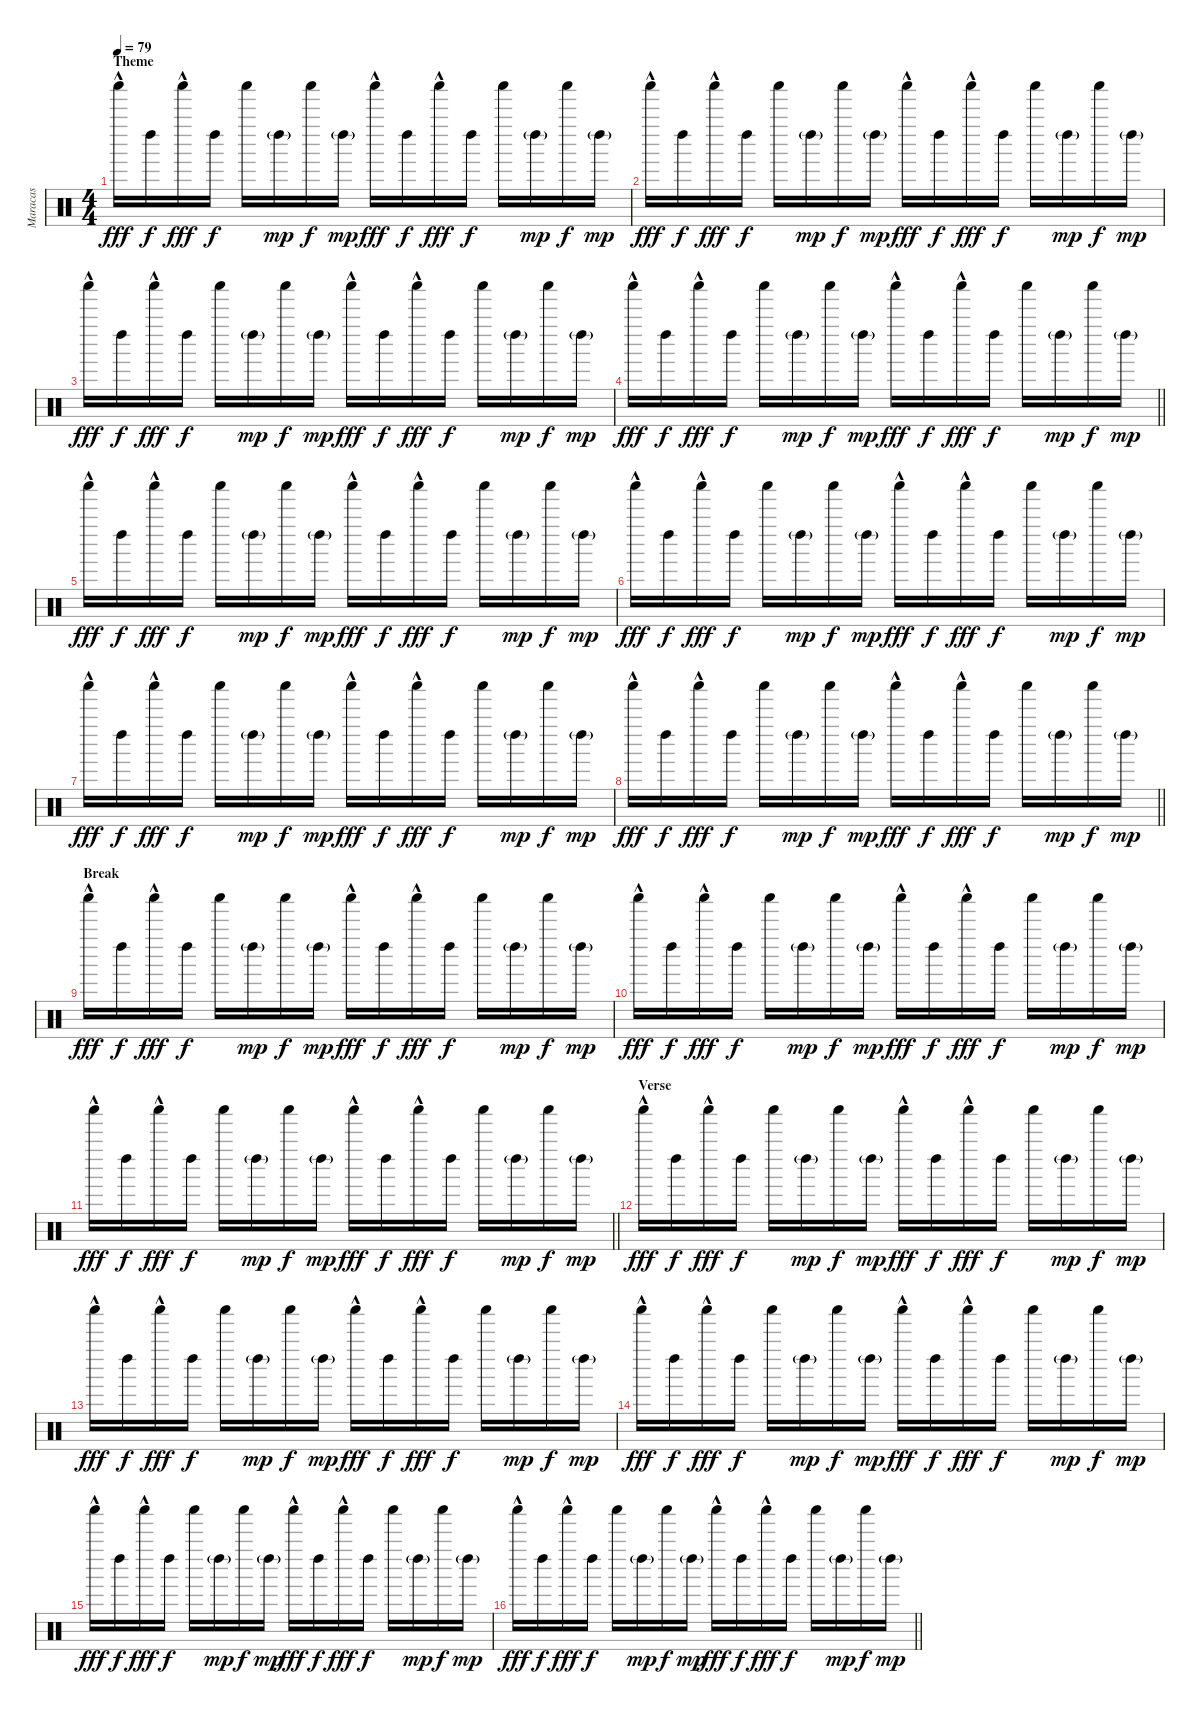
\track ("Maracas" "Maracas") {instrument percussion}
\staff {score}
\articulation defaults
\ts (4 4)
\section ("" "Theme")
\tempo 79
\clef neutral
\ks c "Shaker (hit)"{hac}.16{dy fff} "Left Maraca (hit)".16{dy f} "Shaker (hit)"{hac}.16{dy fff} "Left Maraca (hit)".16{dy f} "Shaker (hit)".16 "Left Maraca (hit)"{g}.16{dy mp} "Shaker (hit)".16{dy f} "Left Maraca (hit)"{g}.16{dy mp} "Shaker (hit)"{hac}.16{dy fff} "Left Maraca (hit)".16{dy f} "Shaker (hit)"{hac}.16{dy fff} "Left Maraca (hit)".16{dy f} "Shaker (hit)".16 "Left Maraca (hit)"{g}.16{dy mp} "Shaker (hit)".16{dy f} "Left Maraca (hit)"{g}.16{dy mp}
|
"Shaker (hit)"{hac}.16{dy fff} "Left Maraca (hit)".16{dy f} "Shaker (hit)"{hac}.16{dy fff} "Left Maraca (hit)".16{dy f} "Shaker (hit)".16 "Left Maraca (hit)"{g}.16{dy mp} "Shaker (hit)".16{dy f} "Left Maraca (hit)"{g}.16{dy mp} "Shaker (hit)"{hac}.16{dy fff} "Left Maraca (hit)".16{dy f} "Shaker (hit)"{hac}.16{dy fff} "Left Maraca (hit)".16{dy f} "Shaker (hit)".16 "Left Maraca (hit)"{g}.16{dy mp} "Shaker (hit)".16{dy f} "Left Maraca (hit)"{g}.16{dy mp} |
"Shaker (hit)"{hac}.16{dy fff} "Left Maraca (hit)".16{dy f} "Shaker (hit)"{hac}.16{dy fff} "Left Maraca (hit)".16{dy f} "Shaker (hit)".16 "Left Maraca (hit)"{g}.16{dy mp} "Shaker (hit)".16{dy f} "Left Maraca (hit)"{g}.16{dy mp} "Shaker (hit)"{hac}.16{dy fff} "Left Maraca (hit)".16{dy f} "Shaker (hit)"{hac}.16{dy fff} "Left Maraca (hit)".16{dy f} "Shaker (hit)".16 "Left Maraca (hit)"{g}.16{dy mp} "Shaker (hit)".16{dy f} "Left Maraca (hit)"{g}.16{dy mp} |
\barLineRight lightlight "Shaker (hit)"{hac}.16{dy fff} "Left Maraca (hit)".16{dy f} "Shaker (hit)"{hac}.16{dy fff} "Left Maraca (hit)".16{dy f} "Shaker (hit)".16 "Left Maraca (hit)"{g}.16{dy mp} "Shaker (hit)".16{dy f} "Left Maraca (hit)"{g}.16{dy mp} "Shaker (hit)"{hac}.16{dy fff} "Left Maraca (hit)".16{dy f} "Shaker (hit)"{hac}.16{dy fff} "Left Maraca (hit)".16{dy f} "Shaker (hit)".16 "Left Maraca (hit)"{g}.16{dy mp} "Shaker (hit)".16{dy f} "Left Maraca (hit)"{g}.16{dy mp}
|
"Shaker (hit)"{hac}.16{dy fff} "Left Maraca (hit)".16{dy f} "Shaker (hit)"{hac}.16{dy fff} "Left Maraca (hit)".16{dy f} "Shaker (hit)".16 "Left Maraca (hit)"{g}.16{dy mp} "Shaker (hit)".16{dy f} "Left Maraca (hit)"{g}.16{dy mp} "Shaker (hit)"{hac}.16{dy fff} "Left Maraca (hit)".16{dy f} "Shaker (hit)"{hac}.16{dy fff} "Left Maraca (hit)".16{dy f} "Shaker (hit)".16 "Left Maraca (hit)"{g}.16{dy mp} "Shaker (hit)".16{dy f} "Left Maraca (hit)"{g}.16{dy mp} |
"Shaker (hit)"{hac}.16{dy fff} "Left Maraca (hit)".16{dy f} "Shaker (hit)"{hac}.16{dy fff} "Left Maraca (hit)".16{dy f} "Shaker (hit)".16 "Left Maraca (hit)"{g}.16{dy mp} "Shaker (hit)".16{dy f} "Left Maraca (hit)"{g}.16{dy mp} "Shaker (hit)"{hac}.16{dy fff} "Left Maraca (hit)".16{dy f} "Shaker (hit)"{hac}.16{dy fff} "Left Maraca (hit)".16{dy f} "Shaker (hit)".16 "Left Maraca (hit)"{g}.16{dy mp} "Shaker (hit)".16{dy f} "Left Maraca (hit)"{g}.16{dy mp} |
"Shaker (hit)"{hac}.16{dy fff} "Left Maraca (hit)".16{dy f} "Shaker (hit)"{hac}.16{dy fff} "Left Maraca (hit)".16{dy f} "Shaker (hit)".16 "Left Maraca (hit)"{g}.16{dy mp} "Shaker (hit)".16{dy f} "Left Maraca (hit)"{g}.16{dy mp} "Shaker (hit)"{hac}.16{dy fff} "Left Maraca (hit)".16{dy f} "Shaker (hit)"{hac}.16{dy fff} "Left Maraca (hit)".16{dy f} "Shaker (hit)".16 "Left Maraca (hit)"{g}.16{dy mp} "Shaker (hit)".16{dy f} "Left Maraca (hit)"{g}.16{dy mp} |
\barLineRight lightlight "Shaker (hit)"{hac}.16{dy fff} "Left Maraca (hit)".16{dy f} "Shaker (hit)"{hac}.16{dy fff} "Left Maraca (hit)".16{dy f} "Shaker (hit)".16 "Left Maraca (hit)"{g}.16{dy mp} "Shaker (hit)".16{dy f} "Left Maraca (hit)"{g}.16{dy mp} "Shaker (hit)"{hac}.16{dy fff} "Left Maraca (hit)".16{dy f} "Shaker (hit)"{hac}.16{dy fff} "Left Maraca (hit)".16{dy f} "Shaker (hit)".16 "Left Maraca (hit)"{g}.16{dy mp} "Shaker (hit)".16{dy f} "Left Maraca (hit)"{g}.16{dy mp}
|
\section ("" "Break")
"Shaker (hit)"{hac}.16{dy fff} "Left Maraca (hit)".16{dy f} "Shaker (hit)"{hac}.16{dy fff} "Left Maraca (hit)".16{dy f} "Shaker (hit)".16 "Left Maraca (hit)"{g}.16{dy mp} "Shaker (hit)".16{dy f} "Left Maraca (hit)"{g}.16{dy mp} "Shaker (hit)"{hac}.16{dy fff} "Left Maraca (hit)".16{dy f} "Shaker (hit)"{hac}.16{dy fff} "Left Maraca (hit)".16{dy f} "Shaker (hit)".16 "Left Maraca (hit)"{g}.16{dy mp} "Shaker (hit)".16{dy f} "Left Maraca (hit)"{g}.16{dy mp} |
"Shaker (hit)"{hac}.16{dy fff} "Left Maraca (hit)".16{dy f} "Shaker (hit)"{hac}.16{dy fff} "Left Maraca (hit)".16{dy f} "Shaker (hit)".16 "Left Maraca (hit)"{g}.16{dy mp} "Shaker (hit)".16{dy f} "Left Maraca (hit)"{g}.16{dy mp} "Shaker (hit)"{hac}.16{dy fff} "Left Maraca (hit)".16{dy f} "Shaker (hit)"{hac}.16{dy fff} "Left Maraca (hit)".16{dy f} "Shaker (hit)".16 "Left Maraca (hit)"{g}.16{dy mp} "Shaker (hit)".16{dy f} "Left Maraca (hit)"{g}.16{dy mp} |
\barLineRight lightlight "Shaker (hit)"{hac}.16{dy fff} "Left Maraca (hit)".16{dy f} "Shaker (hit)"{hac}.16{dy fff} "Left Maraca (hit)".16{dy f} "Shaker (hit)".16 "Left Maraca (hit)"{g}.16{dy mp} "Shaker (hit)".16{dy f} "Left Maraca (hit)"{g}.16{dy mp} "Shaker (hit)"{hac}.16{dy fff} "Left Maraca (hit)".16{dy f} "Shaker (hit)"{hac}.16{dy fff} "Left Maraca (hit)".16{dy f} "Shaker (hit)".16 "Left Maraca (hit)"{g}.16{dy mp} "Shaker (hit)".16{dy f} "Left Maraca (hit)"{g}.16{dy mp}
|
\section ("" "Verse")
"Shaker (hit)"{hac}.16{dy fff} "Left Maraca (hit)".16{dy f} "Shaker (hit)"{hac}.16{dy fff} "Left Maraca (hit)".16{dy f} "Shaker (hit)".16 "Left Maraca (hit)"{g}.16{dy mp} "Shaker (hit)".16{dy f} "Left Maraca (hit)"{g}.16{dy mp} "Shaker (hit)"{hac}.16{dy fff} "Left Maraca (hit)".16{dy f} "Shaker (hit)"{hac}.16{dy fff} "Left Maraca (hit)".16{dy f} "Shaker (hit)".16 "Left Maraca (hit)"{g}.16{dy mp} "Shaker (hit)".16{dy f} "Left Maraca (hit)"{g}.16{dy mp} |
"Shaker (hit)"{hac}.16{dy fff} "Left Maraca (hit)".16{dy f} "Shaker (hit)"{hac}.16{dy fff} "Left Maraca (hit)".16{dy f} "Shaker (hit)".16 "Left Maraca (hit)"{g}.16{dy mp} "Shaker (hit)".16{dy f} "Left Maraca (hit)"{g}.16{dy mp} "Shaker (hit)"{hac}.16{dy fff} "Left Maraca (hit)".16{dy f} "Shaker (hit)"{hac}.16{dy fff} "Left Maraca (hit)".16{dy f} "Shaker (hit)".16 "Left Maraca (hit)"{g}.16{dy mp} "Shaker (hit)".16{dy f} "Left Maraca (hit)"{g}.16{dy mp} |
"Shaker (hit)"{hac}.16{dy fff} "Left Maraca (hit)".16{dy f} "Shaker (hit)"{hac}.16{dy fff} "Left Maraca (hit)".16{dy f} "Shaker (hit)".16 "Left Maraca (hit)"{g}.16{dy mp} "Shaker (hit)".16{dy f} "Left Maraca (hit)"{g}.16{dy mp} "Shaker (hit)"{hac}.16{dy fff} "Left Maraca (hit)".16{dy f} "Shaker (hit)"{hac}.16{dy fff} "Left Maraca (hit)".16{dy f} "Shaker (hit)".16 "Left Maraca (hit)"{g}.16{dy mp} "Shaker (hit)".16{dy f} "Left Maraca (hit)"{g}.16{dy mp} |
"Shaker (hit)"{hac}.16{dy fff} "Left Maraca (hit)".16{dy f} "Shaker (hit)"{hac}.16{dy fff} "Left Maraca (hit)".16{dy f} "Shaker (hit)".16 "Left Maraca (hit)"{g}.16{dy mp} "Shaker (hit)".16{dy f} "Left Maraca (hit)"{g}.16{dy mp} "Shaker (hit)"{hac}.16{dy fff} "Left Maraca (hit)".16{dy f} "Shaker (hit)"{hac}.16{dy fff} "Left Maraca (hit)".16{dy f} "Shaker (hit)".16 "Left Maraca (hit)"{g}.16{dy mp} "Shaker (hit)".16{dy f} "Left Maraca (hit)"{g}.16{dy mp} |
\barLineRight lightlight "Shaker (hit)"{hac}.16{dy fff} "Left Maraca (hit)".16{dy f} "Shaker (hit)"{hac}.16{dy fff} "Left Maraca (hit)".16{dy f} "Shaker (hit)".16 "Left Maraca (hit)"{g}.16{dy mp} "Shaker (hit)".16{dy f} "Left Maraca (hit)"{g}.16{dy mp} "Shaker (hit)"{hac}.16{dy fff} "Left Maraca (hit)".16{dy f} "Shaker (hit)"{hac}.16{dy fff} "Left Maraca (hit)".16{dy f} "Shaker (hit)".16 "Left Maraca (hit)"{g}.16{dy mp} "Shaker (hit)".16{dy f} "Left Maraca (hit)"{g}.16{dy mp}
